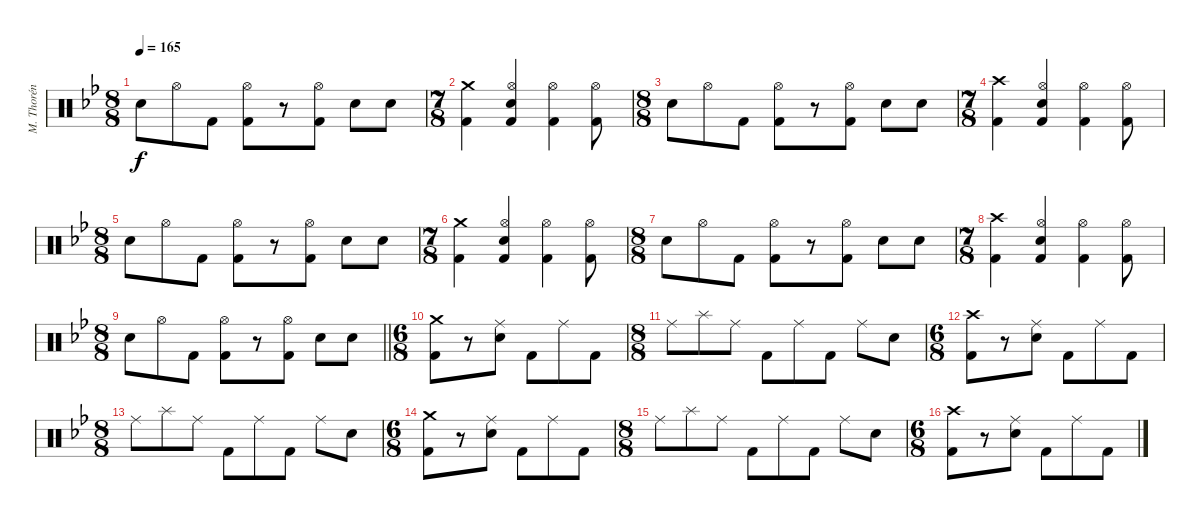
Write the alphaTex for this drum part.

\track ("M. Thorén (Drums)" "M. Thorén ") {instrument percussion}
\staff {score}
\articulation defaults
\ts (8 8)
\tempo 165
\clef neutral
\ks gminor "Electric Snare (hit)".8{dy f} "Hi-Hat (open)".8 "Kick (hit) 2".8
("Hi-Hat (open)" "Kick (hit) 2").8 r.8 ("Hi-Hat (open)" "Kick (hit) 2").8 "Electric Snare (hit)".8 "Electric Snare (hit)".8 |
\ts (7 8)
("Crash medium (hit)" "Kick (hit) 2").4 ("Hi-Hat (open)" "Electric Snare (hit)" "Kick (hit) 2").4 ("Hi-Hat (open)" "Kick (hit) 2").4 ("Hi-Hat (open)" "Kick (hit) 2").8 |
\ts (8 8)
"Electric Snare (hit)".8 "Hi-Hat (open)".8 "Kick (hit) 2".8 ("Hi-Hat (open)" "Kick (hit) 2").8 r.8 ("Hi-Hat (open)" "Kick (hit) 2").8 "Electric Snare (hit)".8 "Electric Snare (hit)".8 |
\ts (7 8)
("Crash high (hit)" "Kick (hit) 2").4 ("Hi-Hat (open)" "Electric Snare (hit)" "Kick (hit) 2").4 ("Hi-Hat (open)" "Kick (hit) 2").4 ("Hi-Hat (open)" "Kick (hit) 2").8 |
\ts (8 8)
"Electric Snare (hit)".8 "Hi-Hat (open)".8 "Kick (hit) 2".8 ("Hi-Hat (open)" "Kick (hit) 2").8 r.8 ("Hi-Hat (open)" "Kick (hit) 2").8 "Electric Snare (hit)".8 "Electric Snare (hit)".8 |
\ts (7 8)
("Crash medium (hit)" "Kick (hit) 2").4 ("Hi-Hat (open)" "Electric Snare (hit)" "Kick (hit) 2").4 ("Hi-Hat (open)" "Kick (hit) 2").4 ("Hi-Hat (open)" "Kick (hit) 2").8 |
\ts (8 8)
"Electric Snare (hit)".8 "Hi-Hat (open)".8 "Kick (hit) 2".8 ("Hi-Hat (open)" "Kick (hit) 2").8 r.8 ("Hi-Hat (open)" "Kick (hit) 2").8 "Electric Snare (hit)".8 "Electric Snare (hit)".8 |
\ts (7 8)
("Crash high (hit)" "Kick (hit) 2").4 ("Hi-Hat (open)" "Electric Snare (hit)" "Kick (hit) 2").4 ("Hi-Hat (open)" "Kick (hit) 2").4 ("Hi-Hat (open)" "Kick (hit) 2").8 |
\ts (8 8)
\barLineRight lightlight "Electric Snare (hit)".8 "Hi-Hat (open)".8 "Kick (hit) 2".8
("Hi-Hat (open)" "Kick (hit) 2").8 r.8 ("Hi-Hat (open)" "Kick (hit) 2").8 "Electric Snare (hit)".8 "Electric Snare (hit)".8 |
\ts (6 8)
("Crash medium (hit)" "Kick (hit) 2").8 r.8 ("Ride (middle)" "Electric Snare (hit)").8 "Kick (hit) 2".8 "Ride (middle)".8 "Kick (hit) 2".8 |
\ts (8 8)
"Ride (middle)".8 "Splash (hit)".8 "Ride (middle)".8 "Kick (hit) 2".8 "Ride (middle)".8 "Kick (hit) 2".8 "Ride (middle)".8 "Electric Snare (hit)".8 |
\ts (6 8)
("Crash high (hit)" "Kick (hit) 2").8 r.8 ("Ride (middle)" "Electric Snare (hit)").8 "Kick (hit) 2".8 "Ride (middle)".8 "Kick (hit) 2".8 |
\ts (8 8)
"Ride (middle)".8 "Splash (hit)".8 "Ride (middle)".8 "Kick (hit) 2".8 "Ride (middle)".8 "Kick (hit) 2".8 "Ride (middle)".8 "Electric Snare (hit)".8 |
\ts (6 8)
("Crash medium (hit)" "Kick (hit) 2").8 r.8 ("Ride (middle)" "Electric Snare (hit)").8 "Kick (hit) 2".8 "Ride (middle)".8 "Kick (hit) 2".8 |
\ts (8 8)
"Ride (middle)".8 "Splash (hit)".8 "Ride (middle)".8 "Kick (hit) 2".8 "Ride (middle)".8 "Kick (hit) 2".8 "Ride (middle)".8 "Electric Snare (hit)".8 |
\ts (6 8)
("Crash high (hit)" "Kick (hit) 2").8 r.8 ("Ride (middle)" "Electric Snare (hit)").8 "Kick (hit) 2".8 "Ride (middle)".8 "Kick (hit) 2".8
